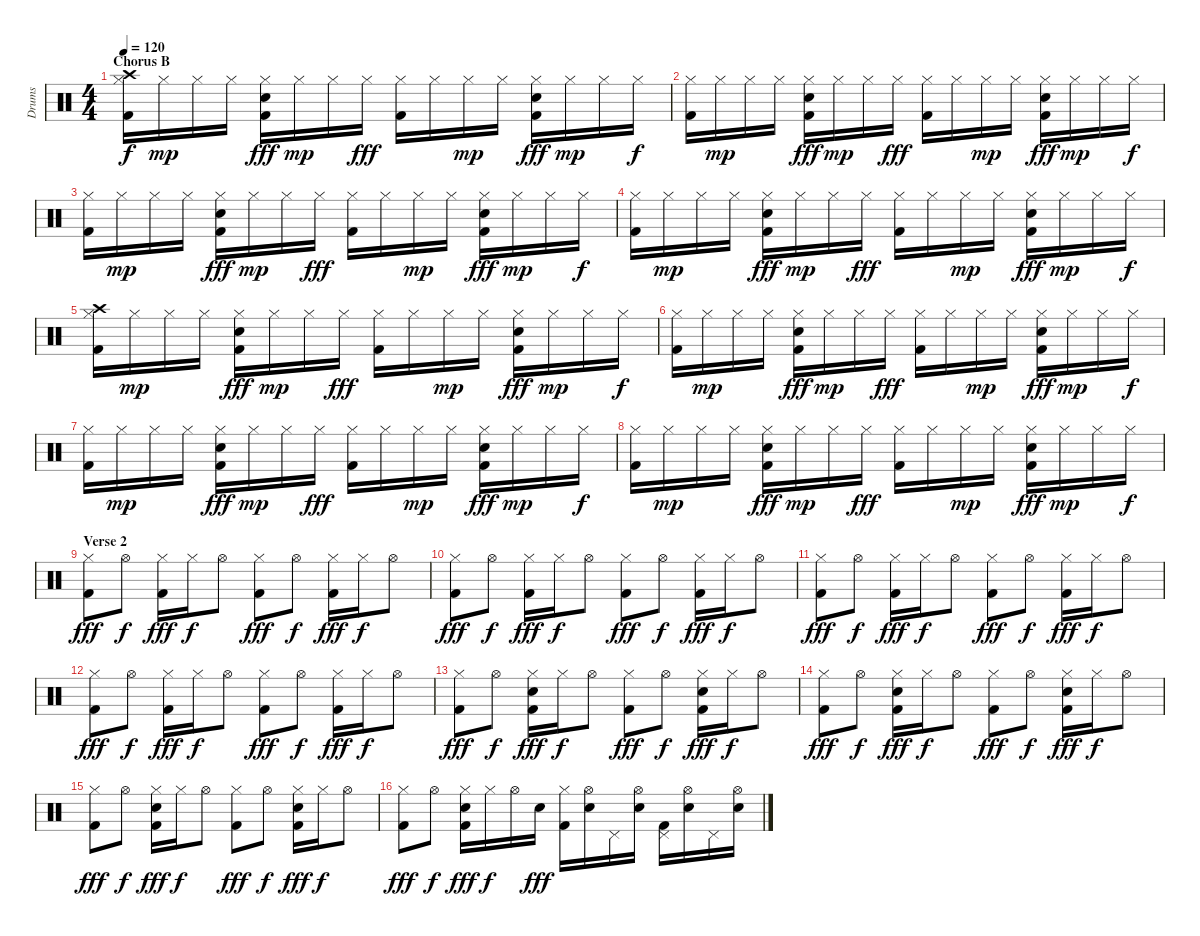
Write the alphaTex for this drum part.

\track ("Drums" "Drums") {instrument percussion}
\staff {score}
\articulation defaults
\ts (4 4)
\section ("" "Chorus B")
\tempo 120
\clef neutral
\ks c
("Hi-Hat (closed)" "Crash high (hit)" "Kick (hit) 2").16{dy f} "Hi-Hat (closed)".16{dy mp} "Hi-Hat (closed)".16 "Hi-Hat (closed)".16 ("Hi-Hat (closed)" "Snare (hit) 2" "Kick (hit) 2").16{dy fff} "Hi-Hat (closed)".16{dy mp} "Hi-Hat (closed)".16 "Hi-Hat (closed)".16{dy fff} ("Hi-Hat (closed)" "Kick (hit) 2").16 "Hi-Hat (closed)".16 "Hi-Hat (closed)".16{dy mp} "Hi-Hat (closed)".16 ("Hi-Hat (closed)" "Snare (hit) 2" "Kick (hit) 2").16{dy fff} "Hi-Hat (closed)".16{dy mp} "Hi-Hat (closed)".16 "Hi-Hat (closed)".16{dy f} |
("Hi-Hat (closed)" "Kick (hit) 2").16 "Hi-Hat (closed)".16{dy mp} "Hi-Hat (closed)".16 "Hi-Hat (closed)".16 ("Hi-Hat (closed)" "Snare (hit) 2" "Kick (hit) 2").16{dy fff} "Hi-Hat (closed)".16{dy mp} "Hi-Hat (closed)".16 "Hi-Hat (closed)".16{dy fff} ("Hi-Hat (closed)" "Kick (hit) 2").16 "Hi-Hat (closed)".16 "Hi-Hat (closed)".16{dy mp} "Hi-Hat (closed)".16 ("Hi-Hat (closed)" "Snare (hit) 2" "Kick (hit) 2").16{dy fff} "Hi-Hat (closed)".16{dy mp} "Hi-Hat (closed)".16 "Hi-Hat (closed)".16{dy f} |
("Hi-Hat (closed)" "Kick (hit) 2").16 "Hi-Hat (closed)".16{dy mp} "Hi-Hat (closed)".16 "Hi-Hat (closed)".16 ("Hi-Hat (closed)" "Snare (hit) 2" "Kick (hit) 2").16{dy fff} "Hi-Hat (closed)".16{dy mp} "Hi-Hat (closed)".16 "Hi-Hat (closed)".16{dy fff} ("Hi-Hat (closed)" "Kick (hit) 2").16 "Hi-Hat (closed)".16 "Hi-Hat (closed)".16{dy mp} "Hi-Hat (closed)".16 ("Hi-Hat (closed)" "Snare (hit) 2" "Kick (hit) 2").16{dy fff} "Hi-Hat (closed)".16{dy mp} "Hi-Hat (closed)".16 "Hi-Hat (closed)".16{dy f} |
("Hi-Hat (closed)" "Kick (hit) 2").16 "Hi-Hat (closed)".16{dy mp} "Hi-Hat (closed)".16 "Hi-Hat (closed)".16 ("Hi-Hat (closed)" "Snare (hit) 2" "Kick (hit) 2").16{dy fff} "Hi-Hat (closed)".16{dy mp} "Hi-Hat (closed)".16 "Hi-Hat (closed)".16{dy fff} ("Hi-Hat (closed)" "Kick (hit) 2").16 "Hi-Hat (closed)".16 "Hi-Hat (closed)".16{dy mp} "Hi-Hat (closed)".16 ("Hi-Hat (closed)" "Snare (hit) 2" "Kick (hit) 2").16{dy fff} "Hi-Hat (closed)".16{dy mp} "Hi-Hat (closed)".16 "Hi-Hat (closed)".16{dy f} |
("Hi-Hat (closed)" "Crash high (hit)" "Kick (hit) 2").16 "Hi-Hat (closed)".16{dy mp} "Hi-Hat (closed)".16 "Hi-Hat (closed)".16 ("Hi-Hat (closed)" "Snare (hit) 2" "Kick (hit) 2").16{dy fff} "Hi-Hat (closed)".16{dy mp} "Hi-Hat (closed)".16 "Hi-Hat (closed)".16{dy fff} ("Hi-Hat (closed)" "Kick (hit) 2").16 "Hi-Hat (closed)".16 "Hi-Hat (closed)".16{dy mp} "Hi-Hat (closed)".16 ("Hi-Hat (closed)" "Snare (hit) 2" "Kick (hit) 2").16{dy fff} "Hi-Hat (closed)".16{dy mp} "Hi-Hat (closed)".16 "Hi-Hat (closed)".16{dy f} |
("Hi-Hat (closed)" "Kick (hit) 2").16 "Hi-Hat (closed)".16{dy mp} "Hi-Hat (closed)".16 "Hi-Hat (closed)".16 ("Hi-Hat (closed)" "Snare (hit) 2" "Kick (hit) 2").16{dy fff} "Hi-Hat (closed)".16{dy mp} "Hi-Hat (closed)".16 "Hi-Hat (closed)".16{dy fff} ("Hi-Hat (closed)" "Kick (hit) 2").16 "Hi-Hat (closed)".16 "Hi-Hat (closed)".16{dy mp} "Hi-Hat (closed)".16 ("Hi-Hat (closed)" "Snare (hit) 2" "Kick (hit) 2").16{dy fff} "Hi-Hat (closed)".16{dy mp} "Hi-Hat (closed)".16 "Hi-Hat (closed)".16{dy f} |
("Hi-Hat (closed)" "Kick (hit) 2").16 "Hi-Hat (closed)".16{dy mp} "Hi-Hat (closed)".16 "Hi-Hat (closed)".16 ("Hi-Hat (closed)" "Snare (hit) 2" "Kick (hit) 2").16{dy fff} "Hi-Hat (closed)".16{dy mp} "Hi-Hat (closed)".16 "Hi-Hat (closed)".16{dy fff} ("Hi-Hat (closed)" "Kick (hit) 2").16 "Hi-Hat (closed)".16 "Hi-Hat (closed)".16{dy mp} "Hi-Hat (closed)".16 ("Hi-Hat (closed)" "Snare (hit) 2" "Kick (hit) 2").16{dy fff} "Hi-Hat (closed)".16{dy mp} "Hi-Hat (closed)".16 "Hi-Hat (closed)".16{dy f} |
("Hi-Hat (closed)" "Kick (hit) 2").16 "Hi-Hat (closed)".16{dy mp} "Hi-Hat (closed)".16 "Hi-Hat (closed)".16 ("Hi-Hat (closed)" "Snare (hit) 2" "Kick (hit) 2").16{dy fff} "Hi-Hat (closed)".16{dy mp} "Hi-Hat (closed)".16 "Hi-Hat (closed)".16{dy fff} ("Hi-Hat (closed)" "Kick (hit) 2").16 "Hi-Hat (closed)".16 "Hi-Hat (closed)".16{dy mp} "Hi-Hat (closed)".16 ("Hi-Hat (closed)" "Snare (hit) 2" "Kick (hit) 2").16{dy fff} "Hi-Hat (closed)".16{dy mp} "Hi-Hat (closed)".16 "Hi-Hat (closed)".16{dy f} |
\section ("" "Verse 2")
("Hi-Hat (closed)" "Kick (hit) 2").8{dy fff} "Hi-Hat (open)".8{dy f} ("Hi-Hat (closed)" "Kick (hit) 2").16{dy fff} "Hi-Hat (closed)".16{dy f} "Hi-Hat (open)".8 ("Hi-Hat (closed)" "Kick (hit) 2").8{dy fff} "Hi-Hat (open)".8{dy f} ("Hi-Hat (closed)" "Kick (hit) 2").16{dy fff} "Hi-Hat (closed)".16{dy f} "Hi-Hat (open)".8 |
("Hi-Hat (closed)" "Kick (hit) 2").8{dy fff} "Hi-Hat (open)".8{dy f} ("Hi-Hat (closed)" "Kick (hit) 2").16{dy fff} "Hi-Hat (closed)".16{dy f} "Hi-Hat (open)".8 ("Hi-Hat (closed)" "Kick (hit) 2").8{dy fff} "Hi-Hat (open)".8{dy f} ("Hi-Hat (closed)" "Kick (hit) 2").16{dy fff} "Hi-Hat (closed)".16{dy f} "Hi-Hat (open)".8 |
("Hi-Hat (closed)" "Kick (hit) 2").8{dy fff} "Hi-Hat (open)".8{dy f} ("Hi-Hat (closed)" "Kick (hit) 2").16{dy fff} "Hi-Hat (closed)".16{dy f} "Hi-Hat (open)".8 ("Hi-Hat (closed)" "Kick (hit) 2").8{dy fff} "Hi-Hat (open)".8{dy f} ("Hi-Hat (closed)" "Kick (hit) 2").16{dy fff} "Hi-Hat (closed)".16{dy f} "Hi-Hat (open)".8 |
("Hi-Hat (closed)" "Kick (hit) 2").8{dy fff} "Hi-Hat (open)".8{dy f} ("Hi-Hat (closed)" "Kick (hit) 2").16{dy fff} "Hi-Hat (closed)".16{dy f} "Hi-Hat (open)".8 ("Hi-Hat (closed)" "Kick (hit) 2").8{dy fff} "Hi-Hat (open)".8{dy f} ("Hi-Hat (closed)" "Kick (hit) 2").16{dy fff} "Hi-Hat (closed)".16{dy f} "Hi-Hat (open)".8 |
("Hi-Hat (closed)" "Kick (hit) 2").8{dy fff} "Hi-Hat (open)".8{dy f} ("Hi-Hat (closed)" "Snare (hit) 2" "Kick (hit) 2").16{dy fff} "Hi-Hat (closed)".16{dy f} "Hi-Hat (open)".8 ("Hi-Hat (closed)" "Kick (hit) 2").8{dy fff} "Hi-Hat (open)".8{dy f} ("Hi-Hat (closed)" "Snare (hit) 2" "Kick (hit) 2").16{dy fff} "Hi-Hat (closed)".16{dy f} "Hi-Hat (open)".8 |
("Hi-Hat (closed)" "Kick (hit) 2").8{dy fff} "Hi-Hat (open)".8{dy f} ("Hi-Hat (closed)" "Snare (hit) 2" "Kick (hit) 2").16{dy fff} "Hi-Hat (closed)".16{dy f} "Hi-Hat (open)".8 ("Hi-Hat (closed)" "Kick (hit) 2").8{dy fff} "Hi-Hat (open)".8{dy f} ("Hi-Hat (closed)" "Snare (hit) 2" "Kick (hit) 2").16{dy fff} "Hi-Hat (closed)".16{dy f} "Hi-Hat (open)".8 |
("Hi-Hat (closed)" "Kick (hit) 2").8{dy fff} "Hi-Hat (open)".8{dy f} ("Hi-Hat (closed)" "Snare (hit) 2" "Kick (hit) 2").16{dy fff} "Hi-Hat (closed)".16{dy f} "Hi-Hat (open)".8 ("Hi-Hat (closed)" "Kick (hit) 2").8{dy fff} "Hi-Hat (open)".8{dy f} ("Hi-Hat (closed)" "Snare (hit) 2" "Kick (hit) 2").16{dy fff} "Hi-Hat (closed)".16{dy f} "Hi-Hat (open)".8 |
("Hi-Hat (closed)" "Kick (hit) 2").8{dy fff} "Hi-Hat (open)".8{dy f} ("Hi-Hat (closed)" "Snare (hit) 2" "Kick (hit) 2").16{dy fff} "Hi-Hat (closed)".16{dy f} "Hi-Hat (open)".16 "Snare (hit) 2".16{dy fff} ("Hi-Hat (closed)" "Kick (hit) 2").16 ("Hi-Hat (open)" "Snare (hit) 2").16 "Pedal Hi-Hat (hit)".16 ("Hi-Hat (open)" "Snare (hit) 2").16 ("Pedal Hi-Hat (hit)" "Kick (hit) 2").16 ("Hi-Hat (open)" "Snare (hit) 2").16 "Pedal Hi-Hat (hit)".16 ("Hi-Hat (open)" "Snare (hit) 2").16
